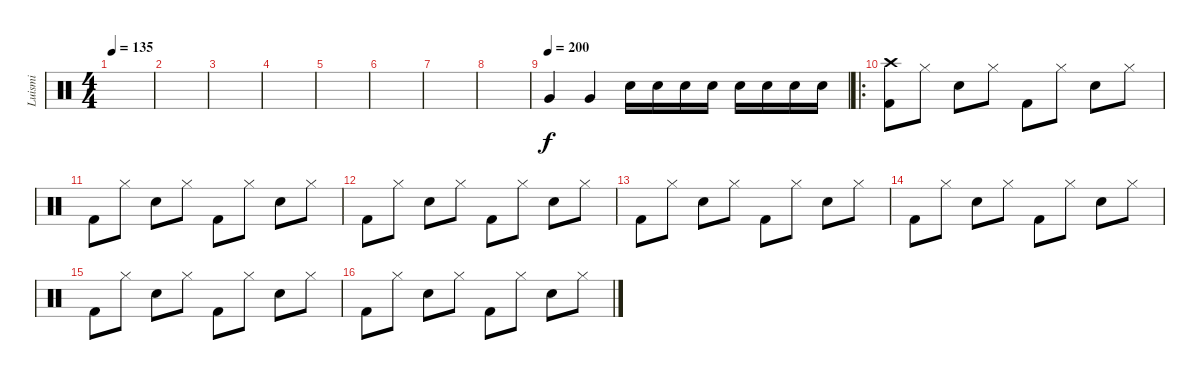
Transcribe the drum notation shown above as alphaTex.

\track ("Luismi" "Luismi") {instrument percussion}
\staff {score}
\articulation defaults
\ts (4 4)
\tempo 135
\clef neutral
\ks c
|
|
|
|
|
|
|
|
\tempo (200)
"Very Low Tom (hit)".4 "Very Low Tom (hit)".4 "Electric Snare (hit)".16 "Electric Snare (hit)".16 "Electric Snare (hit)".16 "Electric Snare (hit)".16 "Electric Snare (hit)".16 "Electric Snare (hit)".16 "Electric Snare (hit)".16 "Electric Snare (hit)".16 |
\ro
("Crash high (hit)" "Kick (hit) 2").8 "Hi-Hat (closed)".8 "Snare (hit) 2".8 "Hi-Hat (closed)".8 "Kick (hit) 2".8 "Hi-Hat (closed)".8 "Snare (hit) 2".8 "Hi-Hat (closed)".8 |
"Kick (hit) 2".8 "Hi-Hat (closed)".8 "Snare (hit) 2".8 "Hi-Hat (closed)".8 "Kick (hit) 2".8 "Hi-Hat (closed)".8 "Snare (hit) 2".8 "Hi-Hat (closed)".8 |
"Kick (hit) 2".8 "Hi-Hat (closed)".8 "Snare (hit) 2".8 "Hi-Hat (closed)".8 "Kick (hit) 2".8 "Hi-Hat (closed)".8 "Snare (hit) 2".8 "Hi-Hat (closed)".8 |
"Kick (hit) 2".8 "Hi-Hat (closed)".8 "Snare (hit) 2".8 "Hi-Hat (closed)".8 "Kick (hit) 2".8 "Hi-Hat (closed)".8 "Snare (hit) 2".8 "Hi-Hat (closed)".8 |
"Kick (hit) 2".8 "Hi-Hat (closed)".8 "Snare (hit) 2".8 "Hi-Hat (closed)".8 "Kick (hit) 2".8 "Hi-Hat (closed)".8 "Snare (hit) 2".8 "Hi-Hat (closed)".8 |
"Kick (hit) 2".8 "Hi-Hat (closed)".8 "Snare (hit) 2".8 "Hi-Hat (closed)".8 "Kick (hit) 2".8 "Hi-Hat (closed)".8 "Snare (hit) 2".8 "Hi-Hat (closed)".8 |
"Kick (hit) 2".8 "Hi-Hat (closed)".8 "Snare (hit) 2".8 "Hi-Hat (closed)".8 "Kick (hit) 2".8 "Hi-Hat (closed)".8 "Snare (hit) 2".8 "Hi-Hat (closed)".8
